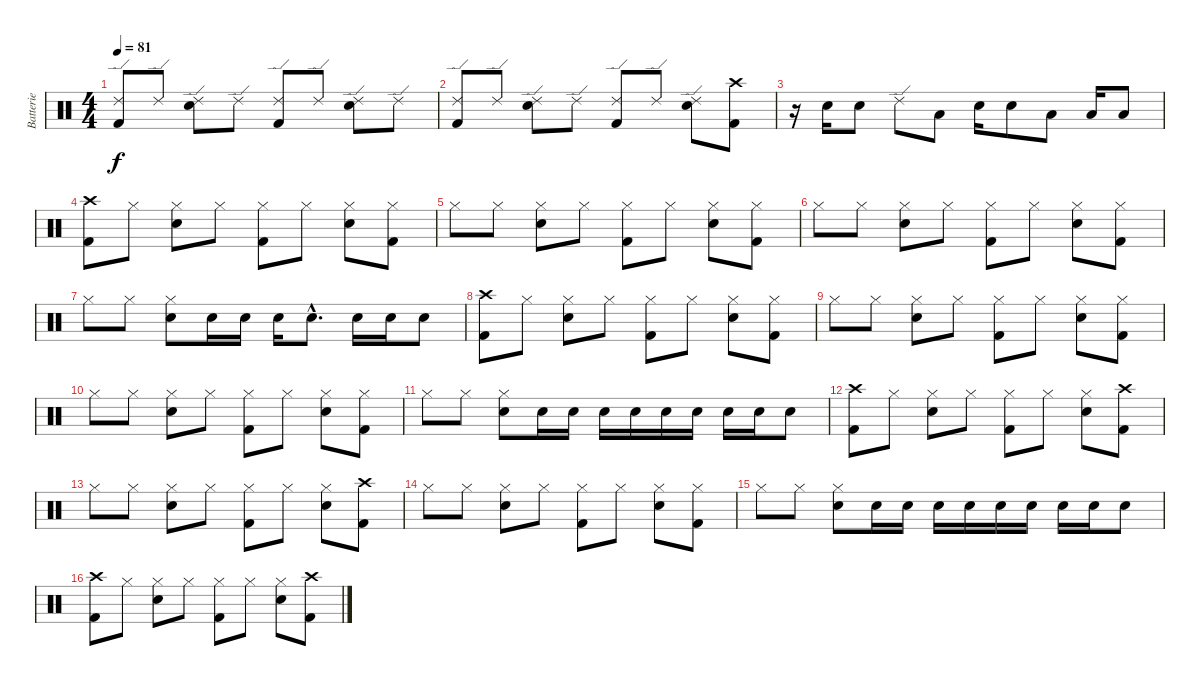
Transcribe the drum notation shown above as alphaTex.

\track ("Batterie" "Batterie") {instrument percussion}
\staff {score}
\articulation defaults
\ts (4 4)
\tempo 81
\clef neutral
\ks c
("Ride (edge) 2" "Kick (hit) 2").8{dy f} "Ride (edge) 2".8 ("Ride (edge) 2" "Electric Snare (hit)").8 "Ride (edge) 2".8 ("Ride (edge) 2" "Kick (hit) 2").8 "Ride (edge) 2".8 ("Ride (edge) 2" "Electric Snare (hit)").8 "Ride (edge) 2".8 |
("Ride (edge) 2" "Kick (hit) 2").8 "Ride (edge) 2".8 ("Ride (edge) 2" "Electric Snare (hit)").8 "Ride (edge) 2".8 ("Ride (edge) 2" "Kick (hit) 2").8 "Ride (edge) 2".8 ("Ride (edge) 2" "Electric Snare (hit)").8 ("Crash high (hit)" "Kick (hit) 2").8 |
r.16 "Electric Snare (hit)".16 "Electric Snare (hit)".8 "Ride (edge) 2".8 "Low Tom (hit)".8 "Electric Snare (hit)".16 "Electric Snare (hit)".8 "Low Tom (hit)".8 "Low Tom (hit)".16 "Low Tom (hit)".8 |
("Crash high (hit)" "Kick (hit) 2").8 "Hi-Hat (closed)".8 ("Hi-Hat (closed)" "Electric Snare (hit)").8 "Hi-Hat (closed)".8 ("Hi-Hat (closed)" "Kick (hit) 2").8 "Hi-Hat (closed)".8 ("Hi-Hat (closed)" "Electric Snare (hit)").8 ("Hi-Hat (closed)" "Kick (hit) 2").8 |
"Hi-Hat (closed)".8 "Hi-Hat (closed)".8 ("Hi-Hat (closed)" "Electric Snare (hit)").8 "Hi-Hat (closed)".8 ("Hi-Hat (closed)" "Kick (hit) 2").8 "Hi-Hat (closed)".8 ("Hi-Hat (closed)" "Electric Snare (hit)").8 ("Hi-Hat (closed)" "Kick (hit) 2").8 |
"Hi-Hat (closed)".8 "Hi-Hat (closed)".8 ("Hi-Hat (closed)" "Electric Snare (hit)").8 "Hi-Hat (closed)".8 ("Hi-Hat (closed)" "Kick (hit) 2").8 "Hi-Hat (closed)".8 ("Hi-Hat (closed)" "Electric Snare (hit)").8 ("Hi-Hat (closed)" "Kick (hit) 2").8 |
"Hi-Hat (closed)".8 "Hi-Hat (closed)".8 ("Hi-Hat (closed)" "Electric Snare (hit)").8 "Electric Snare (hit)".16 "Electric Snare (hit)".16 "Electric Snare (hit)".16 "Electric Snare (hit)"{hac}.8{d} "Electric Snare (hit)".16 "Electric Snare (hit)".16 "Electric Snare (hit)".8 |
("Crash high (hit)" "Kick (hit) 2").8 "Hi-Hat (closed)".8 ("Hi-Hat (closed)" "Electric Snare (hit)").8 "Hi-Hat (closed)".8 ("Hi-Hat (closed)" "Kick (hit) 2").8 "Hi-Hat (closed)".8 ("Hi-Hat (closed)" "Electric Snare (hit)").8 ("Hi-Hat (closed)" "Kick (hit) 2").8 |
"Hi-Hat (closed)".8 "Hi-Hat (closed)".8 ("Hi-Hat (closed)" "Electric Snare (hit)").8 "Hi-Hat (closed)".8 ("Hi-Hat (closed)" "Kick (hit) 2").8 "Hi-Hat (closed)".8 ("Hi-Hat (closed)" "Electric Snare (hit)").8 ("Hi-Hat (closed)" "Kick (hit) 2").8 |
"Hi-Hat (closed)".8 "Hi-Hat (closed)".8 ("Hi-Hat (closed)" "Electric Snare (hit)").8 "Hi-Hat (closed)".8 ("Hi-Hat (closed)" "Kick (hit) 2").8 "Hi-Hat (closed)".8 ("Hi-Hat (closed)" "Electric Snare (hit)").8 ("Hi-Hat (closed)" "Kick (hit) 2").8 |
"Hi-Hat (closed)".8 "Hi-Hat (closed)".8 ("Hi-Hat (closed)" "Electric Snare (hit)").8 "Electric Snare (hit)".16 "Electric Snare (hit)".16 "Electric Snare (hit)".16 "Electric Snare (hit)".16 "Electric Snare (hit)".16 "Electric Snare (hit)".16 "Electric Snare (hit)".16 "Electric Snare (hit)".16 "Electric Snare (hit)".8 |
("Crash high (hit)" "Kick (hit) 2").8 "Hi-Hat (closed)".8 ("Hi-Hat (closed)" "Electric Snare (hit)").8 "Hi-Hat (closed)".8 ("Hi-Hat (closed)" "Kick (hit) 2").8 "Hi-Hat (closed)".8 ("Hi-Hat (closed)" "Electric Snare (hit)").8 ("Crash high (hit)" "Kick (hit) 2").8 |
"Hi-Hat (closed)".8 "Hi-Hat (closed)".8 ("Hi-Hat (closed)" "Electric Snare (hit)").8 "Hi-Hat (closed)".8 ("Hi-Hat (closed)" "Kick (hit) 2").8 "Hi-Hat (closed)".8 ("Hi-Hat (closed)" "Electric Snare (hit)").8 ("Crash high (hit)" "Kick (hit) 2").8 |
"Hi-Hat (closed)".8 "Hi-Hat (closed)".8 ("Hi-Hat (closed)" "Electric Snare (hit)").8 "Hi-Hat (closed)".8 ("Hi-Hat (closed)" "Kick (hit) 2").8 "Hi-Hat (closed)".8 ("Hi-Hat (closed)" "Electric Snare (hit)").8 ("Hi-Hat (closed)" "Kick (hit) 2").8 |
"Hi-Hat (closed)".8 "Hi-Hat (closed)".8 ("Hi-Hat (closed)" "Electric Snare (hit)").8 "Electric Snare (hit)".16 "Electric Snare (hit)".16 "Electric Snare (hit)".16 "Electric Snare (hit)".16 "Electric Snare (hit)".16 "Electric Snare (hit)".16 "Electric Snare (hit)".16 "Electric Snare (hit)".16 "Electric Snare (hit)".8 |
("Crash high (hit)" "Kick (hit) 2").8 "Hi-Hat (closed)".8 ("Hi-Hat (closed)" "Electric Snare (hit)").8 "Hi-Hat (closed)".8 ("Hi-Hat (closed)" "Kick (hit) 2").8 "Hi-Hat (closed)".8 ("Hi-Hat (closed)" "Electric Snare (hit)").8 ("Crash high (hit)" "Kick (hit) 2").8
